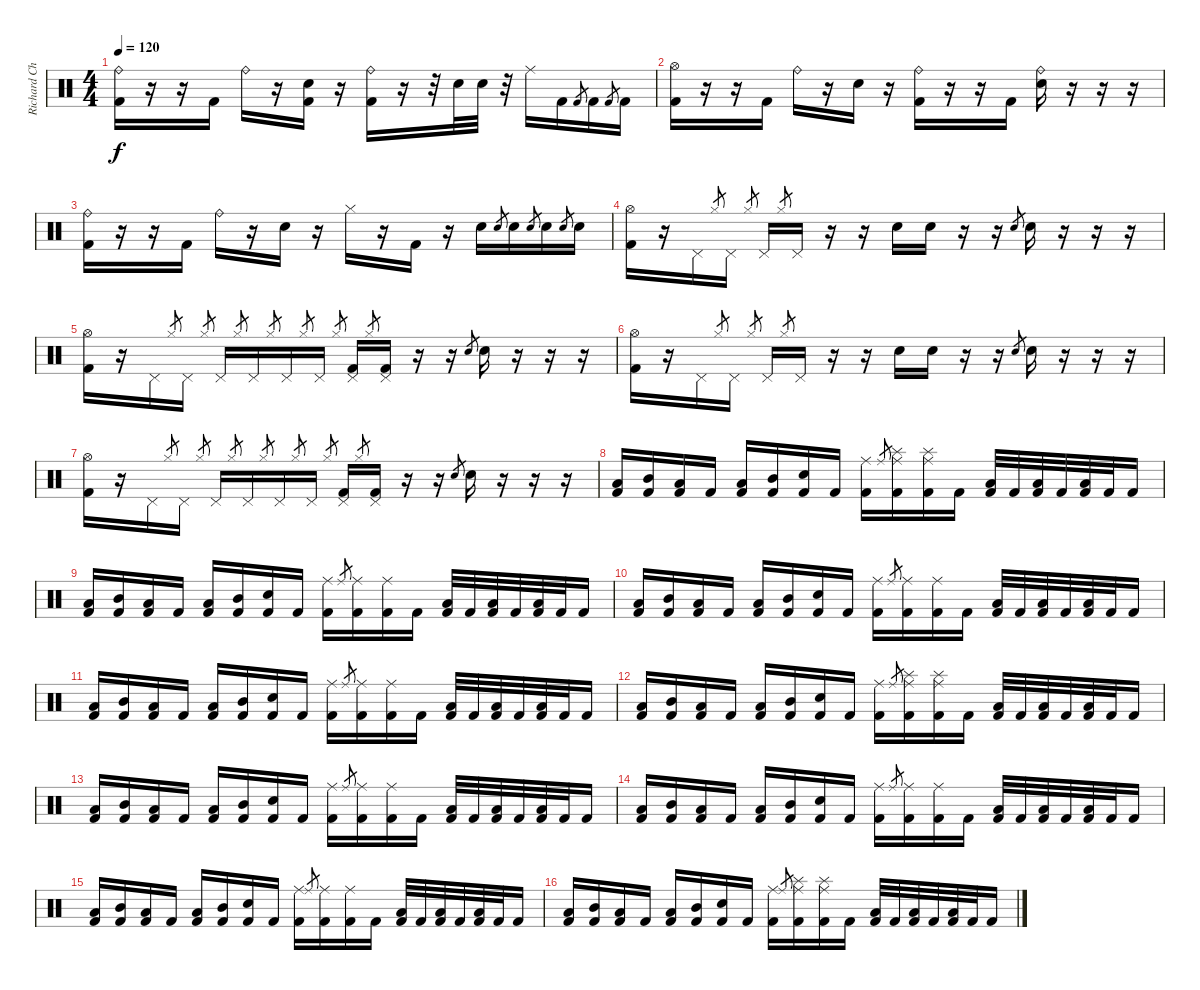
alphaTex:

\track ("Richard Christy" "Richard Ch") {instrument percussion}
\staff {score}
\articulation defaults
\ts (4 4)
\tempo 120
\clef neutral
\ks c
("Ride (bell)" "Kick (hit) 2").16{dy f} r.16 r.16 "Kick (hit) 2".16 "Ride (bell)".16 r.16 ("Snare (hit) 2" "Kick (hit) 2").16 r.16 ("Ride (bell)" "Kick (hit) 2").16 r.16 r.32 "Snare (hit) 2".32 "Snare (hit) 2".32 r.32 "Ride (middle)".16 "Kick (hit) 2".16 "Kick (hit) 2".8{gr} "Kick (hit) 2".16 "Kick (hit) 2".8{gr} "Kick (hit) 2".16 |
("Hi-Hat (open)" "Kick (hit) 2").16 r.16 r.16 "Kick (hit) 2".16 "Ride (bell)".16 r.16 "Snare (hit) 2".16 r.16 ("Ride (bell)" "Kick (hit) 2").16 r.16 r.16 "Kick (hit) 2".16 ("Ride (bell)" "Snare (hit) 2").16 r.16 r.16 r.16 |
("Ride (bell)" "Kick (hit) 2").16 r.16 r.16 "Kick (hit) 2".16 "Ride (bell)".16 r.16 "Snare (hit) 2".16 r.16 "Hi-Hat (closed)".16 r.16 "Kick (hit) 2".16 r.16 "Snare (hit) 2".16 "Snare (hit) 2".8{gr} "Snare (hit) 2".16 "Snare (hit) 2".8{gr} "Snare (hit) 2".16 "Snare (hit) 2".8{gr} "Snare (hit) 2".16 |
("Hi-Hat (open)" "Kick (hit) 2").16 r.16 "Pedal Hi-Hat (hit)".16 "Hi-Hat (closed)".8{gr} "Pedal Hi-Hat (hit)".16 "Hi-Hat (closed)".8{gr} "Pedal Hi-Hat (hit)".16 "Hi-Hat (closed)".8{gr} "Pedal Hi-Hat (hit)".16 r.16 r.16 "Snare (hit) 2".16 "Snare (hit) 2".16 r.16 r.16 "Snare (hit) 2".8{gr} "Snare (hit) 2".16 r.16 r.16 r.16 |
("Hi-Hat (open)" "Kick (hit) 2").16 r.16 "Pedal Hi-Hat (hit)".16 "Hi-Hat (closed)".8{gr} "Pedal Hi-Hat (hit)".16 "Hi-Hat (closed)".8{gr} "Pedal Hi-Hat (hit)".16 "Hi-Hat (closed)".8{gr} "Pedal Hi-Hat (hit)".16 "Hi-Hat (closed)".8{gr} "Pedal Hi-Hat (hit)".16 "Hi-Hat (closed)".8{gr} "Pedal Hi-Hat (hit)".16 "Hi-Hat (closed)".8{gr} ("Pedal Hi-Hat (hit)" "Kick (hit) 2").16 "Hi-Hat (closed)".8{gr} ("Pedal Hi-Hat (hit)" "Kick (hit) 2").16 r.16 r.16 "Snare (hit) 2".8{gr} "Snare (hit) 2".16 r.16 r.16 r.16 |
("Hi-Hat (open)" "Kick (hit) 2").16 r.16 "Pedal Hi-Hat (hit)".16 "Hi-Hat (closed)".8{gr} "Pedal Hi-Hat (hit)".16 "Hi-Hat (closed)".8{gr} "Pedal Hi-Hat (hit)".16 "Hi-Hat (closed)".8{gr} "Pedal Hi-Hat (hit)".16 r.16 r.16 "Snare (hit) 2".16 "Snare (hit) 2".16 r.16 r.16 "Snare (hit) 2".8{gr} "Snare (hit) 2".16 r.16 r.16 r.16 |
("Hi-Hat (open)" "Kick (hit) 2").16 r.16 "Pedal Hi-Hat (hit)".16 "Hi-Hat (closed)".8{gr} "Pedal Hi-Hat (hit)".16 "Hi-Hat (closed)".8{gr} "Pedal Hi-Hat (hit)".16 "Hi-Hat (closed)".8{gr} "Pedal Hi-Hat (hit)".16 "Hi-Hat (closed)".8{gr} "Pedal Hi-Hat (hit)".16 "Hi-Hat (closed)".8{gr} "Pedal Hi-Hat (hit)".16 "Hi-Hat (closed)".8{gr} ("Pedal Hi-Hat (hit)" "Kick (hit) 2").16 "Hi-Hat (closed)".8{gr} ("Pedal Hi-Hat (hit)" "Kick (hit) 2").16 r.16 r.16 "Snare (hit) 2".8{gr} "Snare (hit) 2".16 r.16 r.16 r.16 |
("Low Tom (hit)" "Kick (hit) 2").16 ("Mid Tom (hit)" "Kick (hit) 2").16 ("Low Tom (hit)" "Kick (hit) 2").16 "Kick (hit) 2".16 ("Low Tom (hit)" "Kick (hit) 2").16 ("Mid Tom (hit)" "Kick (hit) 2").16 ("Snare (hit) 2" "Kick (hit) 2").16 "Kick (hit) 2".16 ("Ride (middle)" "Kick (hit) 2").16 "Ride (middle)".8{gr} ("Ride (middle)" "Splash (hit)" "Kick (hit) 2").16 ("Ride (middle)" "Splash (hit)" "Kick (hit) 2").16 "Kick (hit) 2".16 ("Low Tom (hit)" "Kick (hit) 2").32 "Kick (hit) 2".32 ("Low Tom (hit)" "Kick (hit) 2").32 "Kick (hit) 2".32 ("Low Tom (hit)" "Kick (hit) 2").32 "Kick (hit) 2".32 "Kick (hit) 2".16 |
("Low Tom (hit)" "Kick (hit) 2").16 ("Mid Tom (hit)" "Kick (hit) 2").16 ("Low Tom (hit)" "Kick (hit) 2").16 "Kick (hit) 2".16 ("Low Tom (hit)" "Kick (hit) 2").16 ("Mid Tom (hit)" "Kick (hit) 2").16 ("Snare (hit) 2" "Kick (hit) 2").16 "Kick (hit) 2".16 ("Ride (middle)" "Kick (hit) 2").16 "Ride (middle)".8{gr} ("Ride (middle)" "Kick (hit) 2").16 ("Ride (middle)" "Kick (hit) 2").16 "Kick (hit) 2".16 ("Low Tom (hit)" "Kick (hit) 2").32 "Kick (hit) 2".32 ("Low Tom (hit)" "Kick (hit) 2").32 "Kick (hit) 2".32 ("Low Tom (hit)" "Kick (hit) 2").32 "Kick (hit) 2".32 "Kick (hit) 2".16 |
("Low Tom (hit)" "Kick (hit) 2").16 ("Mid Tom (hit)" "Kick (hit) 2").16 ("Low Tom (hit)" "Kick (hit) 2").16 "Kick (hit) 2".16 ("Low Tom (hit)" "Kick (hit) 2").16 ("Mid Tom (hit)" "Kick (hit) 2").16 ("Snare (hit) 2" "Kick (hit) 2").16 "Kick (hit) 2".16 ("Ride (middle)" "Kick (hit) 2").16 "Ride (middle)".8{gr} ("Ride (middle)" "Kick (hit) 2").16 ("Ride (middle)" "Kick (hit) 2").16 "Kick (hit) 2".16 ("Low Tom (hit)" "Kick (hit) 2").32 "Kick (hit) 2".32 ("Low Tom (hit)" "Kick (hit) 2").32 "Kick (hit) 2".32 ("Low Tom (hit)" "Kick (hit) 2").32 "Kick (hit) 2".32 "Kick (hit) 2".16 |
("Low Tom (hit)" "Kick (hit) 2").16 ("Mid Tom (hit)" "Kick (hit) 2").16 ("Low Tom (hit)" "Kick (hit) 2").16 "Kick (hit) 2".16 ("Low Tom (hit)" "Kick (hit) 2").16 ("Mid Tom (hit)" "Kick (hit) 2").16 ("Snare (hit) 2" "Kick (hit) 2").16 "Kick (hit) 2".16 ("Ride (middle)" "Kick (hit) 2").16 "Ride (middle)".8{gr} ("Ride (middle)" "Kick (hit) 2").16 ("Ride (middle)" "Kick (hit) 2").16 "Kick (hit) 2".16 ("Low Tom (hit)" "Kick (hit) 2").32 "Kick (hit) 2".32 ("Low Tom (hit)" "Kick (hit) 2").32 "Kick (hit) 2".32 ("Low Tom (hit)" "Kick (hit) 2").32 "Kick (hit) 2".32 "Kick (hit) 2".16 |
("Low Tom (hit)" "Kick (hit) 2").16 ("Mid Tom (hit)" "Kick (hit) 2").16 ("Low Tom (hit)" "Kick (hit) 2").16 "Kick (hit) 2".16 ("Low Tom (hit)" "Kick (hit) 2").16 ("Mid Tom (hit)" "Kick (hit) 2").16 ("Snare (hit) 2" "Kick (hit) 2").16 "Kick (hit) 2".16 ("Ride (middle)" "Kick (hit) 2").16 "Ride (middle)".8{gr} ("Ride (middle)" "Splash (hit)" "Kick (hit) 2").16 ("Ride (middle)" "Splash (hit)" "Kick (hit) 2").16 "Kick (hit) 2".16 ("Low Tom (hit)" "Kick (hit) 2").32 "Kick (hit) 2".32 ("Low Tom (hit)" "Kick (hit) 2").32 "Kick (hit) 2".32 ("Low Tom (hit)" "Kick (hit) 2").32 "Kick (hit) 2".32 "Kick (hit) 2".16 |
("Low Tom (hit)" "Kick (hit) 2").16 ("Mid Tom (hit)" "Kick (hit) 2").16 ("Low Tom (hit)" "Kick (hit) 2").16 "Kick (hit) 2".16 ("Low Tom (hit)" "Kick (hit) 2").16 ("Mid Tom (hit)" "Kick (hit) 2").16 ("Snare (hit) 2" "Kick (hit) 2").16 "Kick (hit) 2".16 ("Ride (middle)" "Kick (hit) 2").16 "Ride (middle)".8{gr} ("Ride (middle)" "Kick (hit) 2").16 ("Ride (middle)" "Kick (hit) 2").16 "Kick (hit) 2".16 ("Low Tom (hit)" "Kick (hit) 2").32 "Kick (hit) 2".32 ("Low Tom (hit)" "Kick (hit) 2").32 "Kick (hit) 2".32 ("Low Tom (hit)" "Kick (hit) 2").32 "Kick (hit) 2".32 "Kick (hit) 2".16 |
("Low Tom (hit)" "Kick (hit) 2").16 ("Mid Tom (hit)" "Kick (hit) 2").16 ("Low Tom (hit)" "Kick (hit) 2").16 "Kick (hit) 2".16 ("Low Tom (hit)" "Kick (hit) 2").16 ("Mid Tom (hit)" "Kick (hit) 2").16 ("Snare (hit) 2" "Kick (hit) 2").16 "Kick (hit) 2".16 ("Ride (middle)" "Kick (hit) 2").16 "Ride (middle)".8{gr} ("Ride (middle)" "Kick (hit) 2").16 ("Ride (middle)" "Kick (hit) 2").16 "Kick (hit) 2".16 ("Low Tom (hit)" "Kick (hit) 2").32 "Kick (hit) 2".32 ("Low Tom (hit)" "Kick (hit) 2").32 "Kick (hit) 2".32 ("Low Tom (hit)" "Kick (hit) 2").32 "Kick (hit) 2".32 "Kick (hit) 2".16 |
("Low Tom (hit)" "Kick (hit) 2").16 ("Mid Tom (hit)" "Kick (hit) 2").16 ("Low Tom (hit)" "Kick (hit) 2").16 "Kick (hit) 2".16 ("Low Tom (hit)" "Kick (hit) 2").16 ("Mid Tom (hit)" "Kick (hit) 2").16 ("Snare (hit) 2" "Kick (hit) 2").16 "Kick (hit) 2".16 ("Ride (middle)" "Kick (hit) 2").16 "Ride (middle)".8{gr} ("Ride (middle)" "Kick (hit) 2").16 ("Ride (middle)" "Kick (hit) 2").16 "Kick (hit) 2".16 ("Low Tom (hit)" "Kick (hit) 2").32 "Kick (hit) 2".32 ("Low Tom (hit)" "Kick (hit) 2").32 "Kick (hit) 2".32 ("Low Tom (hit)" "Kick (hit) 2").32 "Kick (hit) 2".32 "Kick (hit) 2".16 |
("Low Tom (hit)" "Kick (hit) 2").16 ("Mid Tom (hit)" "Kick (hit) 2").16 ("Low Tom (hit)" "Kick (hit) 2").16 "Kick (hit) 2".16 ("Low Tom (hit)" "Kick (hit) 2").16 ("Mid Tom (hit)" "Kick (hit) 2").16 ("Snare (hit) 2" "Kick (hit) 2").16 "Kick (hit) 2".16 ("Ride (middle)" "Kick (hit) 2").16 "Ride (middle)".8{gr} ("Ride (middle)" "Splash (hit)" "Kick (hit) 2").16 ("Ride (middle)" "Splash (hit)" "Kick (hit) 2").16 "Kick (hit) 2".16 ("Low Tom (hit)" "Kick (hit) 2").32 "Kick (hit) 2".32 ("Low Tom (hit)" "Kick (hit) 2").32 "Kick (hit) 2".32 ("Low Tom (hit)" "Kick (hit) 2").32 "Kick (hit) 2".32 "Kick (hit) 2".16
